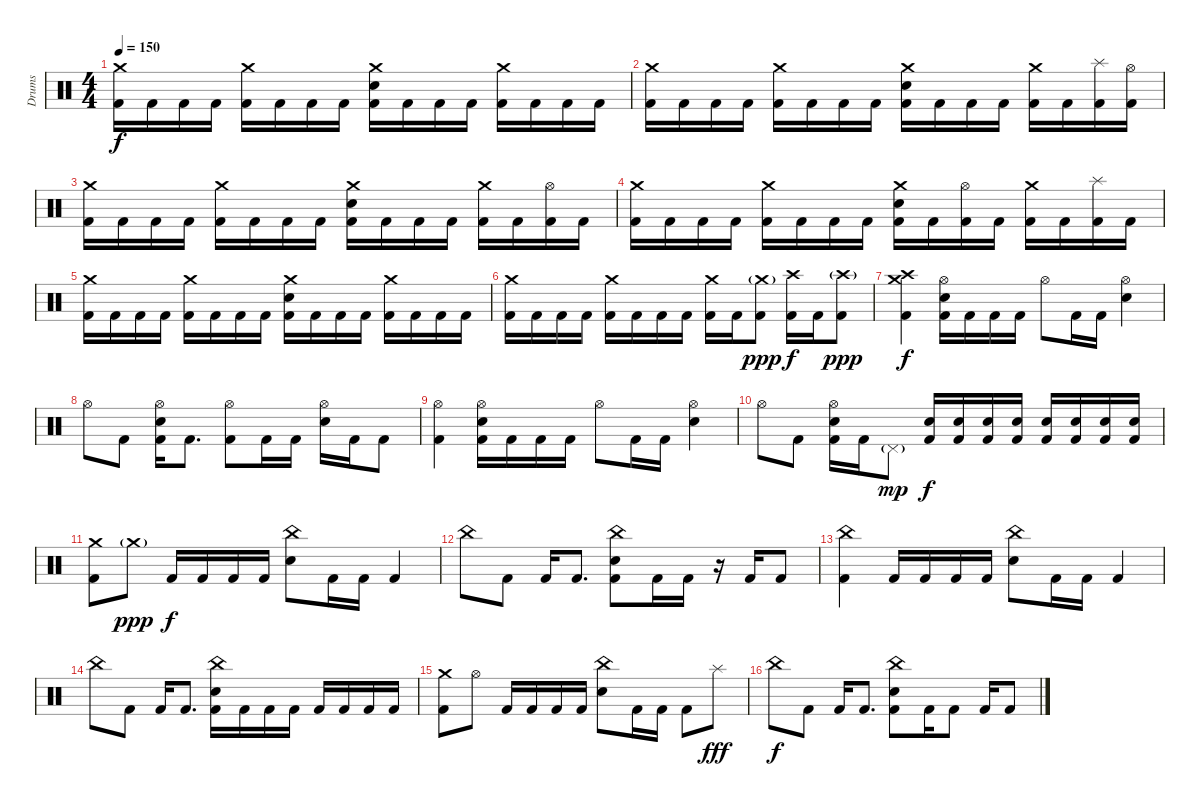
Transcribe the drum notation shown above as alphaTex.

\track ("Drums" "Drums") {instrument percussion}
\staff {score}
\articulation defaults
\ts (4 4)
\tempo 150
\clef neutral
\ks c
("Crash medium (hit)" "Kick (hit) 2").16{dy f} "Kick (hit) 2".16 "Kick (hit) 2".16 "Kick (hit) 2".16 ("Crash medium (hit)" "Kick (hit) 2").16 "Kick (hit) 2".16 "Kick (hit) 2".16 "Kick (hit) 2".16 ("Crash medium (hit)" "Electric Snare (hit)" "Kick (hit) 2").16 "Kick (hit) 2".16 "Kick (hit) 2".16 "Kick (hit) 2".16 ("Crash medium (hit)" "Kick (hit) 2").16 "Kick (hit) 2".16 "Kick (hit) 2".16 "Kick (hit) 2".16 |
("Crash medium (hit)" "Kick (hit) 2").16 "Kick (hit) 2".16 "Kick (hit) 2".16 "Kick (hit) 2".16 ("Crash medium (hit)" "Kick (hit) 2").16 "Kick (hit) 2".16 "Kick (hit) 2".16 "Kick (hit) 2".16 ("Crash medium (hit)" "Electric Snare (hit)" "Kick (hit) 2").16 "Kick (hit) 2".16 "Kick (hit) 2".16 "Kick (hit) 2".16 ("Crash medium (hit)" "Kick (hit) 2").16 "Kick (hit) 2".16 ("Splash (hit)" "Kick (hit) 2").16 ("Hi-Hat (open)" "Kick (hit) 2").16 |
("Crash medium (hit)" "Kick (hit) 2").16 "Kick (hit) 2".16 "Kick (hit) 2".16 "Kick (hit) 2".16 ("Crash medium (hit)" "Kick (hit) 2").16 "Kick (hit) 2".16 "Kick (hit) 2".16 "Kick (hit) 2".16 ("Crash medium (hit)" "Electric Snare (hit)" "Kick (hit) 2").16 "Kick (hit) 2".16 "Kick (hit) 2".16 "Kick (hit) 2".16 ("Crash medium (hit)" "Kick (hit) 2").16 "Kick (hit) 2".16 ("Hi-Hat (open)" "Kick (hit) 2").16 "Kick (hit) 2".16 |
("Crash medium (hit)" "Kick (hit) 2").16 "Kick (hit) 2".16 "Kick (hit) 2".16 "Kick (hit) 2".16 ("Crash medium (hit)" "Kick (hit) 2").16 "Kick (hit) 2".16 "Kick (hit) 2".16 "Kick (hit) 2".16 ("Crash medium (hit)" "Electric Snare (hit)" "Kick (hit) 2").16 "Kick (hit) 2".16 ("Hi-Hat (open)" "Kick (hit) 2").16 "Kick (hit) 2".16 ("Crash medium (hit)" "Kick (hit) 2").16 "Kick (hit) 2".16 ("Splash (hit)" "Kick (hit) 2").16 "Kick (hit) 2".16 |
("Crash medium (hit)" "Kick (hit) 2").16 "Kick (hit) 2".16 "Kick (hit) 2".16 "Kick (hit) 2".16 ("Crash medium (hit)" "Kick (hit) 2").16 "Kick (hit) 2".16 "Kick (hit) 2".16 "Kick (hit) 2".16 ("Crash medium (hit)" "Electric Snare (hit)" "Kick (hit) 2").16 "Kick (hit) 2".16 "Kick (hit) 2".16 "Kick (hit) 2".16 ("Crash medium (hit)" "Kick (hit) 2").16 "Kick (hit) 2".16 "Kick (hit) 2".16 "Kick (hit) 2".16 |
("Crash medium (hit)" "Kick (hit) 2").16 "Kick (hit) 2".16 "Kick (hit) 2".16 "Kick (hit) 2".16 ("Crash medium (hit)" "Kick (hit) 2").16 "Kick (hit) 2".16 "Kick (hit) 2".16 "Kick (hit) 2".16 ("Crash medium (hit)" "Kick (hit) 2").16 "Kick (hit) 2".16 ("Crash medium (hit)"{g} "Kick (hit) 2").8{dy ppp} ("Crash high (hit)" "Kick (hit) 2").16{dy f} "Kick (hit) 2".16 ("Crash high (hit)"{g} "Kick (hit) 2").8{dy ppp} |
("Crash medium (hit)" "Crash high (hit)" "Kick (hit) 2").4{dy f} ("Hi-Hat (open)" "Electric Snare (hit)" "Kick (hit) 2").16 "Kick (hit) 2".16 "Kick (hit) 2".16 "Kick (hit) 2".16 "Hi-Hat (open)".8 "Kick (hit) 2".16 "Kick (hit) 2".16 ("Hi-Hat (open)" "Electric Snare (hit)").4 |
"Hi-Hat (open)".8 "Kick (hit) 2".8 ("Hi-Hat (open)" "Electric Snare (hit)" "Kick (hit) 2").16 "Kick (hit) 2".8{d} ("Hi-Hat (open)" "Kick (hit) 2").8 "Kick (hit) 2".16 "Kick (hit) 2".16 ("Hi-Hat (open)" "Electric Snare (hit)").16 "Kick (hit) 2".16 "Kick (hit) 2".8 |
("Hi-Hat (open)" "Kick (hit) 2").4 ("Hi-Hat (open)" "Electric Snare (hit)" "Kick (hit) 2").16 "Kick (hit) 2".16 "Kick (hit) 2".16 "Kick (hit) 2".16 "Hi-Hat (open)".8 "Kick (hit) 2".16 "Kick (hit) 2".16 ("Hi-Hat (open)" "Electric Snare (hit)").4 |
"Hi-Hat (open)".8 "Kick (hit) 2".8 ("Hi-Hat (open)" "Electric Snare (hit)" "Kick (hit) 2").16 "Kick (hit) 2".16 "Pedal Hi-Hat (hit)"{g}.8{dy mp} ("Electric Snare (hit)" "Kick (hit) 2").16{dy f} ("Electric Snare (hit)" "Kick (hit) 2").16 ("Electric Snare (hit)" "Kick (hit) 2").16 ("Electric Snare (hit)" "Kick (hit) 2").16 ("Electric Snare (hit)" "Kick (hit) 2").16 ("Electric Snare (hit)" "Kick (hit) 2").16 ("Electric Snare (hit)" "Kick (hit) 2").16 ("Electric Snare (hit)" "Kick (hit) 2").16 |
("Crash medium (hit)" "Kick (hit) 2").8 "Crash medium (hit)"{g}.8{dy ppp} "Kick (hit) 2".16{dy f} "Kick (hit) 2".16 "Kick (hit) 2".16 "Kick (hit) 2".16 ("China (hit)" "Electric Snare (hit)").8 "Kick (hit) 2".16 "Kick (hit) 2".16 "Kick (hit) 2".4 |
"China (hit)".8 "Kick (hit) 2".8 "Kick (hit) 2".16 "Kick (hit) 2".8{d} ("China (hit)" "Electric Snare (hit)" "Kick (hit) 2").8 "Kick (hit) 2".16 "Kick (hit) 2".16 r.16 "Kick (hit) 2".16 "Kick (hit) 2".8 |
("China (hit)" "Kick (hit) 2").4 "Kick (hit) 2".16 "Kick (hit) 2".16 "Kick (hit) 2".16 "Kick (hit) 2".16 ("China (hit)" "Electric Snare (hit)").8 "Kick (hit) 2".16 "Kick (hit) 2".16 "Kick (hit) 2".4 |
"China (hit)".8 "Kick (hit) 2".8 "Kick (hit) 2".16 "Kick (hit) 2".8{d} ("China (hit)" "Electric Snare (hit)" "Kick (hit) 2").16 "Kick (hit) 2".16 "Kick (hit) 2".16 "Kick (hit) 2".16 "Kick (hit) 2".16 "Kick (hit) 2".16 "Kick (hit) 2".16 "Kick (hit) 2".16 |
("Crash medium (hit)" "Kick (hit) 2").8 "Hi-Hat (open)".8 "Kick (hit) 2".16 "Kick (hit) 2".16 "Kick (hit) 2".16 "Kick (hit) 2".16 ("China (hit)" "Electric Snare (hit)").8 "Kick (hit) 2".16 "Kick (hit) 2".16 "Kick (hit) 2".8 "Splash (hit)".8{dy fff} |
"China (hit)".8{dy f} "Kick (hit) 2".8 "Kick (hit) 2".16 "Kick (hit) 2".8{d} ("China (hit)" "Electric Snare (hit)" "Kick (hit) 2").8 "Kick (hit) 2".16 "Kick (hit) 2".8 "Kick (hit) 2".16 "Kick (hit) 2".8
